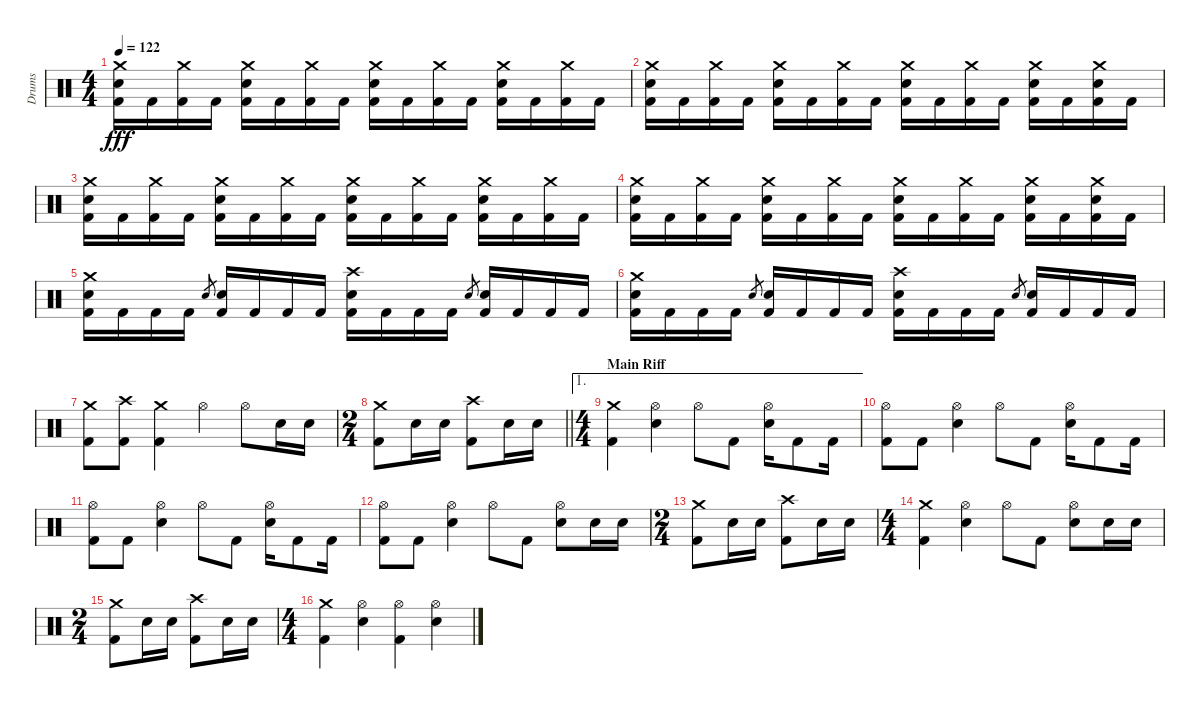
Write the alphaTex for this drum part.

\track ("Drums" "Drums") {instrument percussion}
\staff {score}
\articulation defaults
\ts (4 4)
\tempo 122
\clef neutral
\ks c
("Crash medium (hit)" "Electric Snare (hit)" "Kick (hit) 2").16{dy fff} "Kick (hit) 2".16 ("Crash medium (hit)" "Kick (hit) 2").16 "Kick (hit) 2".16 ("Crash medium (hit)" "Electric Snare (hit)" "Kick (hit) 2").16 "Kick (hit) 2".16 ("Crash medium (hit)" "Kick (hit) 2").16 "Kick (hit) 2".16 ("Crash medium (hit)" "Electric Snare (hit)" "Kick (hit) 2").16 "Kick (hit) 2".16 ("Crash medium (hit)" "Kick (hit) 2").16 "Kick (hit) 2".16 ("Crash medium (hit)" "Electric Snare (hit)" "Kick (hit) 2").16 "Kick (hit) 2".16 ("Crash medium (hit)" "Kick (hit) 2").16 "Kick (hit) 2".16 |
("Crash medium (hit)" "Electric Snare (hit)" "Kick (hit) 2").16 "Kick (hit) 2".16 ("Crash medium (hit)" "Kick (hit) 2").16 "Kick (hit) 2".16 ("Crash medium (hit)" "Electric Snare (hit)" "Kick (hit) 2").16 "Kick (hit) 2".16 ("Crash medium (hit)" "Kick (hit) 2").16 "Kick (hit) 2".16 ("Crash medium (hit)" "Electric Snare (hit)" "Kick (hit) 2").16 "Kick (hit) 2".16 ("Crash medium (hit)" "Kick (hit) 2").16 "Kick (hit) 2".16 ("Crash medium (hit)" "Electric Snare (hit)" "Kick (hit) 2").16 "Kick (hit) 2".16 ("Crash medium (hit)" "Electric Snare (hit)" "Kick (hit) 2").16 "Kick (hit) 2".16 |
("Crash medium (hit)" "Electric Snare (hit)" "Kick (hit) 2").16 "Kick (hit) 2".16 ("Crash medium (hit)" "Kick (hit) 2").16 "Kick (hit) 2".16 ("Crash medium (hit)" "Electric Snare (hit)" "Kick (hit) 2").16 "Kick (hit) 2".16 ("Crash medium (hit)" "Kick (hit) 2").16 "Kick (hit) 2".16 ("Crash medium (hit)" "Electric Snare (hit)" "Kick (hit) 2").16 "Kick (hit) 2".16 ("Crash medium (hit)" "Kick (hit) 2").16 "Kick (hit) 2".16 ("Crash medium (hit)" "Electric Snare (hit)" "Kick (hit) 2").16 "Kick (hit) 2".16 ("Crash medium (hit)" "Kick (hit) 2").16 "Kick (hit) 2".16 |
("Crash medium (hit)" "Electric Snare (hit)" "Kick (hit) 2").16 "Kick (hit) 2".16 ("Crash medium (hit)" "Kick (hit) 2").16 "Kick (hit) 2".16 ("Crash medium (hit)" "Electric Snare (hit)" "Kick (hit) 2").16 "Kick (hit) 2".16 ("Crash medium (hit)" "Kick (hit) 2").16 "Kick (hit) 2".16 ("Crash medium (hit)" "Electric Snare (hit)" "Kick (hit) 2").16 "Kick (hit) 2".16 ("Crash medium (hit)" "Kick (hit) 2").16 "Kick (hit) 2".16 ("Crash medium (hit)" "Electric Snare (hit)" "Kick (hit) 2").16 "Kick (hit) 2".16 ("Crash medium (hit)" "Electric Snare (hit)" "Kick (hit) 2").16 "Kick (hit) 2".16 |
("Crash medium (hit)" "Electric Snare (hit)" "Kick (hit) 2").16 "Kick (hit) 2".16 "Kick (hit) 2".16 "Kick (hit) 2".16 "Electric Snare (hit)".8{gr} ("Electric Snare (hit)" "Kick (hit) 2").16 "Kick (hit) 2".16 "Kick (hit) 2".16 "Kick (hit) 2".16 ("Crash high (hit)" "Electric Snare (hit)" "Kick (hit) 2").16 "Kick (hit) 2".16 "Kick (hit) 2".16 "Kick (hit) 2".16 "Electric Snare (hit)".8{gr} ("Electric Snare (hit)" "Kick (hit) 2").16 "Kick (hit) 2".16 "Kick (hit) 2".16 "Kick (hit) 2".16 |
("Crash medium (hit)" "Electric Snare (hit)" "Kick (hit) 2").16 "Kick (hit) 2".16 "Kick (hit) 2".16 "Kick (hit) 2".16 "Electric Snare (hit)".8{gr} ("Electric Snare (hit)" "Kick (hit) 2").16 "Kick (hit) 2".16 "Kick (hit) 2".16 "Kick (hit) 2".16 ("Crash high (hit)" "Electric Snare (hit)" "Kick (hit) 2").16 "Kick (hit) 2".16 "Kick (hit) 2".16 "Kick (hit) 2".16 "Electric Snare (hit)".8{gr} ("Electric Snare (hit)" "Kick (hit) 2").16 "Kick (hit) 2".16 "Kick (hit) 2".16 "Kick (hit) 2".16 |
("Crash medium (hit)" "Kick (hit) 2").8 ("Crash high (hit)" "Kick (hit) 2").8 ("Crash medium (hit)" "Kick (hit) 2").4 "Hi-Hat (open)".4 "Hi-Hat (open)".8 "Electric Snare (hit)".16 "Electric Snare (hit)".16 |
\ts (2 4)
\barLineRight lightlight
("Crash medium (hit)" "Kick (hit) 2").8 "Electric Snare (hit)".16 "Electric Snare (hit)".16 ("Crash high (hit)" "Kick (hit) 2").8 "Electric Snare (hit)".16 "Electric Snare (hit)".16 |
\ae 1
\ts (4 4)
\section ("" "Main Riff")
("Crash medium (hit)" "Kick (hit) 2").4 ("Hi-Hat (open)" "Electric Snare (hit)").4 "Hi-Hat (open)".8 "Kick (hit) 2".8 ("Hi-Hat (open)" "Electric Snare (hit)").16 "Kick (hit) 2".8 "Kick (hit) 2".16 |
("Hi-Hat (open)" "Kick (hit) 2").8 "Kick (hit) 2".8 ("Hi-Hat (open)" "Electric Snare (hit)").4 "Hi-Hat (open)".8 "Kick (hit) 2".8 ("Hi-Hat (open)" "Electric Snare (hit)").16 "Kick (hit) 2".8 "Kick (hit) 2".16 |
("Hi-Hat (open)" "Kick (hit) 2").8 "Kick (hit) 2".8 ("Hi-Hat (open)" "Electric Snare (hit)").4 "Hi-Hat (open)".8 "Kick (hit) 2".8 ("Hi-Hat (open)" "Electric Snare (hit)").16 "Kick (hit) 2".8 "Kick (hit) 2".16 |
("Hi-Hat (open)" "Kick (hit) 2").8 "Kick (hit) 2".8 ("Hi-Hat (open)" "Electric Snare (hit)").4 "Hi-Hat (open)".8 "Kick (hit) 2".8 ("Hi-Hat (open)" "Electric Snare (hit)").8 "Electric Snare (hit)".16 "Electric Snare (hit)".16 |
\ts (2 4)
("Crash medium (hit)" "Kick (hit) 2").8 "Electric Snare (hit)".16 "Electric Snare (hit)".16 ("Crash high (hit)" "Kick (hit) 2").8 "Electric Snare (hit)".16 "Electric Snare (hit)".16 |
\ts (4 4)
("Crash medium (hit)" "Kick (hit) 2").4 ("Hi-Hat (open)" "Electric Snare (hit)").4 "Hi-Hat (open)".8 "Kick (hit) 2".8 ("Hi-Hat (open)" "Electric Snare (hit)").8 "Electric Snare (hit)".16 "Electric Snare (hit)".16 |
\ts (2 4)
("Crash medium (hit)" "Kick (hit) 2").8 "Electric Snare (hit)".16 "Electric Snare (hit)".16 ("Crash high (hit)" "Kick (hit) 2").8 "Electric Snare (hit)".16 "Electric Snare (hit)".16 |
\ts (4 4)
("Crash medium (hit)" "Kick (hit) 2").4 ("Hi-Hat (open)" "Electric Snare (hit)").4 ("Hi-Hat (open)" "Kick (hit) 2").4 ("Hi-Hat (open)" "Electric Snare (hit)").4
